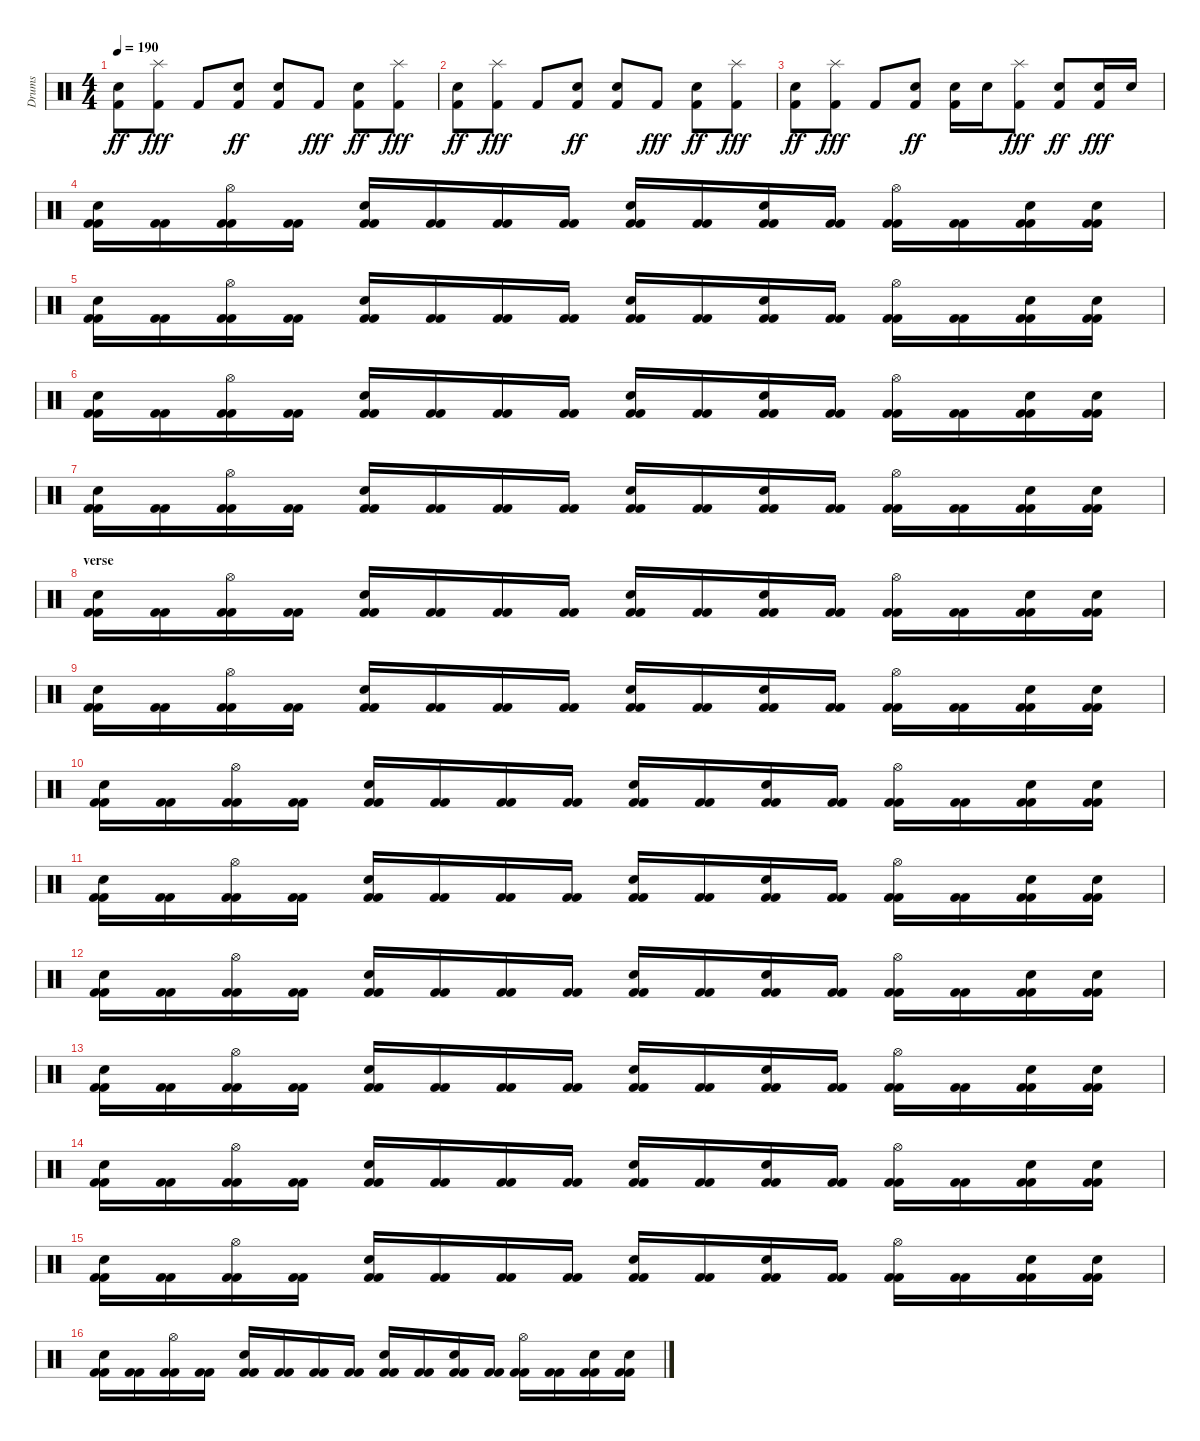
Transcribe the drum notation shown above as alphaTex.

\track ("Drums" "Drums") {instrument percussion}
\staff {score}
\articulation defaults
\ts (4 4)
\tempo 190
\clef neutral
\ks c
("Kick (hit) 2" "Electric Snare (hit)").8{dy ff} ("Kick (hit) 2" "Splash (hit)").8{dy fff} "Kick (hit) 2".8 ("Kick (hit) 2" "Electric Snare (hit)").8{dy ff} ("Kick (hit) 2" "Electric Snare (hit)").8 "Kick (hit) 2".8{dy fff} ("Kick (hit) 2" "Electric Snare (hit)").8{dy ff} ("Kick (hit) 2" "Splash (hit)").8{dy fff} |
("Kick (hit) 2" "Electric Snare (hit)").8{dy ff} ("Kick (hit) 2" "Splash (hit)").8{dy fff} "Kick (hit) 2".8 ("Kick (hit) 2" "Electric Snare (hit)").8{dy ff} ("Kick (hit) 2" "Electric Snare (hit)").8 "Kick (hit) 2".8{dy fff} ("Kick (hit) 2" "Electric Snare (hit)").8{dy ff} ("Kick (hit) 2" "Splash (hit)").8{dy fff} |
("Kick (hit) 2" "Electric Snare (hit)").8{dy ff} ("Kick (hit) 2" "Splash (hit)").8{dy fff} "Kick (hit) 2".8 ("Kick (hit) 2" "Electric Snare (hit)").8{dy ff} ("Kick (hit) 2" "Electric Snare (hit)").16 "Electric Snare (hit)".16 ("Kick (hit) 2" "Splash (hit)").8{dy fff} ("Kick (hit) 2" "Electric Snare (hit)").8{dy ff} ("Kick (hit) 2" "Electric Snare (hit)").16{dy fff} "Electric Snare (hit)".16 |
("Electric Snare (hit)" "Kick (hit) 2" "Kick (hit) 2").16 ("Kick (hit) 2" "Kick (hit) 2").16 ("Hi-Hat (open)" "Kick (hit) 2" "Kick (hit) 2").16 ("Kick (hit) 2" "Kick (hit) 2").16 ("Electric Snare (hit)" "Kick (hit) 2" "Kick (hit) 2").16 ("Kick (hit) 2" "Kick (hit) 2").16 ("Kick (hit) 2" "Kick (hit) 2").16 ("Kick (hit) 2" "Kick (hit) 2").16 ("Electric Snare (hit)" "Kick (hit) 2" "Kick (hit) 2").16 ("Kick (hit) 2" "Kick (hit) 2").16 ("Electric Snare (hit)" "Kick (hit) 2" "Kick (hit) 2").16 ("Kick (hit) 2" "Kick (hit) 2").16 ("Hi-Hat (open)" "Kick (hit) 2" "Kick (hit) 2").16 ("Kick (hit) 2" "Kick (hit) 2").16 ("Electric Snare (hit)" "Kick (hit) 2" "Kick (hit) 2").16 ("Electric Snare (hit)" "Kick (hit) 2" "Kick (hit) 2").16 |
("Electric Snare (hit)" "Kick (hit) 2" "Kick (hit) 2").16 ("Kick (hit) 2" "Kick (hit) 2").16 ("Hi-Hat (open)" "Kick (hit) 2" "Kick (hit) 2").16 ("Kick (hit) 2" "Kick (hit) 2").16 ("Electric Snare (hit)" "Kick (hit) 2" "Kick (hit) 2").16 ("Kick (hit) 2" "Kick (hit) 2").16 ("Kick (hit) 2" "Kick (hit) 2").16 ("Kick (hit) 2" "Kick (hit) 2").16 ("Electric Snare (hit)" "Kick (hit) 2" "Kick (hit) 2").16 ("Kick (hit) 2" "Kick (hit) 2").16 ("Electric Snare (hit)" "Kick (hit) 2" "Kick (hit) 2").16 ("Kick (hit) 2" "Kick (hit) 2").16 ("Hi-Hat (open)" "Kick (hit) 2" "Kick (hit) 2").16 ("Kick (hit) 2" "Kick (hit) 2").16 ("Electric Snare (hit)" "Kick (hit) 2" "Kick (hit) 2").16 ("Electric Snare (hit)" "Kick (hit) 2" "Kick (hit) 2").16 |
("Electric Snare (hit)" "Kick (hit) 2" "Kick (hit) 2").16 ("Kick (hit) 2" "Kick (hit) 2").16 ("Hi-Hat (open)" "Kick (hit) 2" "Kick (hit) 2").16 ("Kick (hit) 2" "Kick (hit) 2").16 ("Electric Snare (hit)" "Kick (hit) 2" "Kick (hit) 2").16 ("Kick (hit) 2" "Kick (hit) 2").16 ("Kick (hit) 2" "Kick (hit) 2").16 ("Kick (hit) 2" "Kick (hit) 2").16 ("Electric Snare (hit)" "Kick (hit) 2" "Kick (hit) 2").16 ("Kick (hit) 2" "Kick (hit) 2").16 ("Electric Snare (hit)" "Kick (hit) 2" "Kick (hit) 2").16 ("Kick (hit) 2" "Kick (hit) 2").16 ("Hi-Hat (open)" "Kick (hit) 2" "Kick (hit) 2").16 ("Kick (hit) 2" "Kick (hit) 2").16 ("Electric Snare (hit)" "Kick (hit) 2" "Kick (hit) 2").16 ("Electric Snare (hit)" "Kick (hit) 2" "Kick (hit) 2").16 |
("Electric Snare (hit)" "Kick (hit) 2" "Kick (hit) 2").16 ("Kick (hit) 2" "Kick (hit) 2").16 ("Hi-Hat (open)" "Kick (hit) 2" "Kick (hit) 2").16 ("Kick (hit) 2" "Kick (hit) 2").16 ("Electric Snare (hit)" "Kick (hit) 2" "Kick (hit) 2").16 ("Kick (hit) 2" "Kick (hit) 2").16 ("Kick (hit) 2" "Kick (hit) 2").16 ("Kick (hit) 2" "Kick (hit) 2").16 ("Electric Snare (hit)" "Kick (hit) 2" "Kick (hit) 2").16 ("Kick (hit) 2" "Kick (hit) 2").16 ("Electric Snare (hit)" "Kick (hit) 2" "Kick (hit) 2").16 ("Kick (hit) 2" "Kick (hit) 2").16 ("Hi-Hat (open)" "Kick (hit) 2" "Kick (hit) 2").16 ("Kick (hit) 2" "Kick (hit) 2").16 ("Electric Snare (hit)" "Kick (hit) 2" "Kick (hit) 2").16 ("Electric Snare (hit)" "Kick (hit) 2" "Kick (hit) 2").16 |
\section ("" "verse")
("Electric Snare (hit)" "Kick (hit) 2" "Kick (hit) 2").16 ("Kick (hit) 2" "Kick (hit) 2").16 ("Hi-Hat (open)" "Kick (hit) 2" "Kick (hit) 2").16 ("Kick (hit) 2" "Kick (hit) 2").16 ("Electric Snare (hit)" "Kick (hit) 2" "Kick (hit) 2").16 ("Kick (hit) 2" "Kick (hit) 2").16 ("Kick (hit) 2" "Kick (hit) 2").16 ("Kick (hit) 2" "Kick (hit) 2").16 ("Electric Snare (hit)" "Kick (hit) 2" "Kick (hit) 2").16 ("Kick (hit) 2" "Kick (hit) 2").16 ("Electric Snare (hit)" "Kick (hit) 2" "Kick (hit) 2").16 ("Kick (hit) 2" "Kick (hit) 2").16 ("Hi-Hat (open)" "Kick (hit) 2" "Kick (hit) 2").16 ("Kick (hit) 2" "Kick (hit) 2").16 ("Electric Snare (hit)" "Kick (hit) 2" "Kick (hit) 2").16 ("Electric Snare (hit)" "Kick (hit) 2" "Kick (hit) 2").16 |
("Electric Snare (hit)" "Kick (hit) 2" "Kick (hit) 2").16 ("Kick (hit) 2" "Kick (hit) 2").16 ("Hi-Hat (open)" "Kick (hit) 2" "Kick (hit) 2").16 ("Kick (hit) 2" "Kick (hit) 2").16 ("Electric Snare (hit)" "Kick (hit) 2" "Kick (hit) 2").16 ("Kick (hit) 2" "Kick (hit) 2").16 ("Kick (hit) 2" "Kick (hit) 2").16 ("Kick (hit) 2" "Kick (hit) 2").16 ("Electric Snare (hit)" "Kick (hit) 2" "Kick (hit) 2").16 ("Kick (hit) 2" "Kick (hit) 2").16 ("Electric Snare (hit)" "Kick (hit) 2" "Kick (hit) 2").16 ("Kick (hit) 2" "Kick (hit) 2").16 ("Hi-Hat (open)" "Kick (hit) 2" "Kick (hit) 2").16 ("Kick (hit) 2" "Kick (hit) 2").16 ("Electric Snare (hit)" "Kick (hit) 2" "Kick (hit) 2").16 ("Electric Snare (hit)" "Kick (hit) 2" "Kick (hit) 2").16 |
("Electric Snare (hit)" "Kick (hit) 2" "Kick (hit) 2").16 ("Kick (hit) 2" "Kick (hit) 2").16 ("Hi-Hat (open)" "Kick (hit) 2" "Kick (hit) 2").16 ("Kick (hit) 2" "Kick (hit) 2").16 ("Electric Snare (hit)" "Kick (hit) 2" "Kick (hit) 2").16 ("Kick (hit) 2" "Kick (hit) 2").16 ("Kick (hit) 2" "Kick (hit) 2").16 ("Kick (hit) 2" "Kick (hit) 2").16 ("Electric Snare (hit)" "Kick (hit) 2" "Kick (hit) 2").16 ("Kick (hit) 2" "Kick (hit) 2").16 ("Electric Snare (hit)" "Kick (hit) 2" "Kick (hit) 2").16 ("Kick (hit) 2" "Kick (hit) 2").16 ("Hi-Hat (open)" "Kick (hit) 2" "Kick (hit) 2").16 ("Kick (hit) 2" "Kick (hit) 2").16 ("Electric Snare (hit)" "Kick (hit) 2" "Kick (hit) 2").16 ("Electric Snare (hit)" "Kick (hit) 2" "Kick (hit) 2").16 |
("Electric Snare (hit)" "Kick (hit) 2" "Kick (hit) 2").16 ("Kick (hit) 2" "Kick (hit) 2").16 ("Hi-Hat (open)" "Kick (hit) 2" "Kick (hit) 2").16 ("Kick (hit) 2" "Kick (hit) 2").16 ("Electric Snare (hit)" "Kick (hit) 2" "Kick (hit) 2").16 ("Kick (hit) 2" "Kick (hit) 2").16 ("Kick (hit) 2" "Kick (hit) 2").16 ("Kick (hit) 2" "Kick (hit) 2").16 ("Electric Snare (hit)" "Kick (hit) 2" "Kick (hit) 2").16 ("Kick (hit) 2" "Kick (hit) 2").16 ("Electric Snare (hit)" "Kick (hit) 2" "Kick (hit) 2").16 ("Kick (hit) 2" "Kick (hit) 2").16 ("Hi-Hat (open)" "Kick (hit) 2" "Kick (hit) 2").16 ("Kick (hit) 2" "Kick (hit) 2").16 ("Electric Snare (hit)" "Kick (hit) 2" "Kick (hit) 2").16 ("Electric Snare (hit)" "Kick (hit) 2" "Kick (hit) 2").16 |
("Electric Snare (hit)" "Kick (hit) 2" "Kick (hit) 2").16 ("Kick (hit) 2" "Kick (hit) 2").16 ("Hi-Hat (open)" "Kick (hit) 2" "Kick (hit) 2").16 ("Kick (hit) 2" "Kick (hit) 2").16 ("Electric Snare (hit)" "Kick (hit) 2" "Kick (hit) 2").16 ("Kick (hit) 2" "Kick (hit) 2").16 ("Kick (hit) 2" "Kick (hit) 2").16 ("Kick (hit) 2" "Kick (hit) 2").16 ("Electric Snare (hit)" "Kick (hit) 2" "Kick (hit) 2").16 ("Kick (hit) 2" "Kick (hit) 2").16 ("Electric Snare (hit)" "Kick (hit) 2" "Kick (hit) 2").16 ("Kick (hit) 2" "Kick (hit) 2").16 ("Hi-Hat (open)" "Kick (hit) 2" "Kick (hit) 2").16 ("Kick (hit) 2" "Kick (hit) 2").16 ("Electric Snare (hit)" "Kick (hit) 2" "Kick (hit) 2").16 ("Electric Snare (hit)" "Kick (hit) 2" "Kick (hit) 2").16 |
("Electric Snare (hit)" "Kick (hit) 2" "Kick (hit) 2").16 ("Kick (hit) 2" "Kick (hit) 2").16 ("Hi-Hat (open)" "Kick (hit) 2" "Kick (hit) 2").16 ("Kick (hit) 2" "Kick (hit) 2").16 ("Electric Snare (hit)" "Kick (hit) 2" "Kick (hit) 2").16 ("Kick (hit) 2" "Kick (hit) 2").16 ("Kick (hit) 2" "Kick (hit) 2").16 ("Kick (hit) 2" "Kick (hit) 2").16 ("Electric Snare (hit)" "Kick (hit) 2" "Kick (hit) 2").16 ("Kick (hit) 2" "Kick (hit) 2").16 ("Electric Snare (hit)" "Kick (hit) 2" "Kick (hit) 2").16 ("Kick (hit) 2" "Kick (hit) 2").16 ("Hi-Hat (open)" "Kick (hit) 2" "Kick (hit) 2").16 ("Kick (hit) 2" "Kick (hit) 2").16 ("Electric Snare (hit)" "Kick (hit) 2" "Kick (hit) 2").16 ("Electric Snare (hit)" "Kick (hit) 2" "Kick (hit) 2").16 |
("Electric Snare (hit)" "Kick (hit) 2" "Kick (hit) 2").16 ("Kick (hit) 2" "Kick (hit) 2").16 ("Hi-Hat (open)" "Kick (hit) 2" "Kick (hit) 2").16 ("Kick (hit) 2" "Kick (hit) 2").16 ("Electric Snare (hit)" "Kick (hit) 2" "Kick (hit) 2").16 ("Kick (hit) 2" "Kick (hit) 2").16 ("Kick (hit) 2" "Kick (hit) 2").16 ("Kick (hit) 2" "Kick (hit) 2").16 ("Electric Snare (hit)" "Kick (hit) 2" "Kick (hit) 2").16 ("Kick (hit) 2" "Kick (hit) 2").16 ("Electric Snare (hit)" "Kick (hit) 2" "Kick (hit) 2").16 ("Kick (hit) 2" "Kick (hit) 2").16 ("Hi-Hat (open)" "Kick (hit) 2" "Kick (hit) 2").16 ("Kick (hit) 2" "Kick (hit) 2").16 ("Electric Snare (hit)" "Kick (hit) 2" "Kick (hit) 2").16 ("Electric Snare (hit)" "Kick (hit) 2" "Kick (hit) 2").16 |
("Electric Snare (hit)" "Kick (hit) 2" "Kick (hit) 2").16 ("Kick (hit) 2" "Kick (hit) 2").16 ("Hi-Hat (open)" "Kick (hit) 2" "Kick (hit) 2").16 ("Kick (hit) 2" "Kick (hit) 2").16 ("Electric Snare (hit)" "Kick (hit) 2" "Kick (hit) 2").16 ("Kick (hit) 2" "Kick (hit) 2").16 ("Kick (hit) 2" "Kick (hit) 2").16 ("Kick (hit) 2" "Kick (hit) 2").16 ("Electric Snare (hit)" "Kick (hit) 2" "Kick (hit) 2").16 ("Kick (hit) 2" "Kick (hit) 2").16 ("Electric Snare (hit)" "Kick (hit) 2" "Kick (hit) 2").16 ("Kick (hit) 2" "Kick (hit) 2").16 ("Hi-Hat (open)" "Kick (hit) 2" "Kick (hit) 2").16 ("Kick (hit) 2" "Kick (hit) 2").16 ("Electric Snare (hit)" "Kick (hit) 2" "Kick (hit) 2").16 ("Electric Snare (hit)" "Kick (hit) 2" "Kick (hit) 2").16 |
("Electric Snare (hit)" "Kick (hit) 2" "Kick (hit) 2").16 ("Kick (hit) 2" "Kick (hit) 2").16 ("Hi-Hat (open)" "Kick (hit) 2" "Kick (hit) 2").16 ("Kick (hit) 2" "Kick (hit) 2").16 ("Electric Snare (hit)" "Kick (hit) 2" "Kick (hit) 2").16 ("Kick (hit) 2" "Kick (hit) 2").16 ("Kick (hit) 2" "Kick (hit) 2").16 ("Kick (hit) 2" "Kick (hit) 2").16 ("Electric Snare (hit)" "Kick (hit) 2" "Kick (hit) 2").16 ("Kick (hit) 2" "Kick (hit) 2").16 ("Electric Snare (hit)" "Kick (hit) 2" "Kick (hit) 2").16 ("Kick (hit) 2" "Kick (hit) 2").16 ("Hi-Hat (open)" "Kick (hit) 2" "Kick (hit) 2").16 ("Kick (hit) 2" "Kick (hit) 2").16 ("Electric Snare (hit)" "Kick (hit) 2" "Kick (hit) 2").16 ("Electric Snare (hit)" "Kick (hit) 2" "Kick (hit) 2").16
